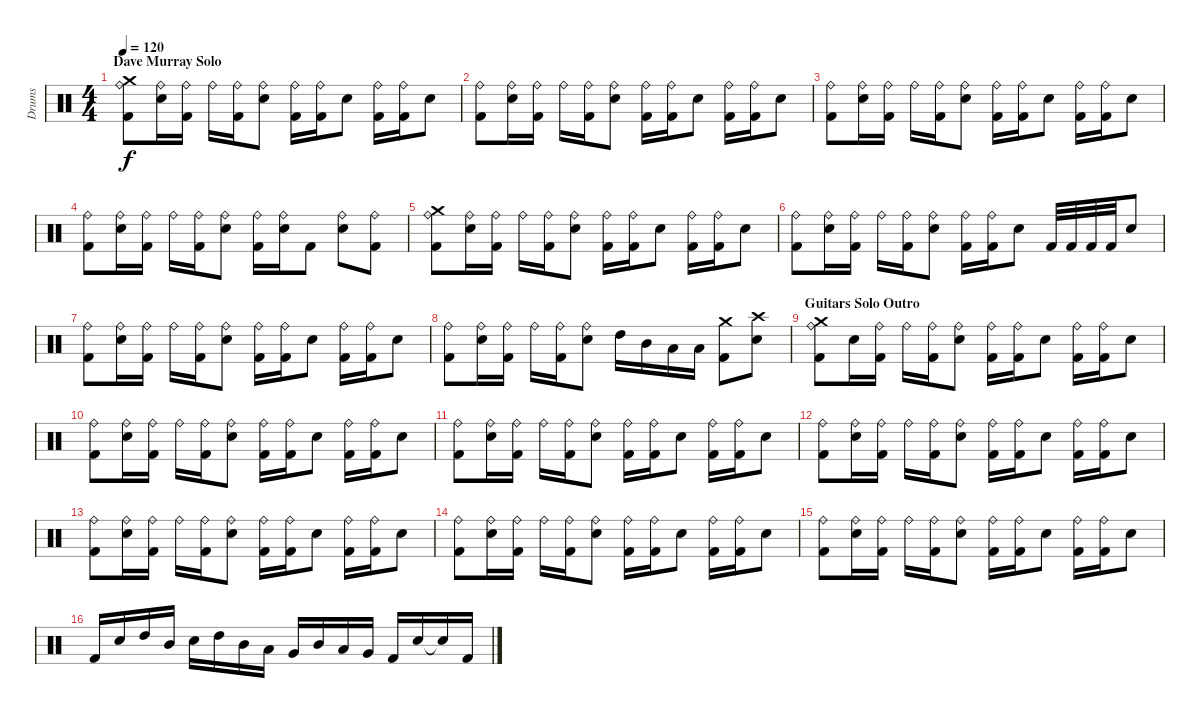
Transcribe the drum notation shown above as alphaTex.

\track ("Drums" "Drums") {instrument percussion}
\staff {score}
\articulation defaults
\ts (4 4)
\section ("" "Dave Murray Solo")
\tempo 120
\clef neutral
\ks c
("Crash medium (hit)" "Kick (hit) 2" "Ride (bell)").8{dy f} ("Snare (hit) 2" "Ride (bell)").16 ("Kick (hit) 2" "Ride (bell)").16 "Ride (bell)".16 ("Kick (hit) 2" "Ride (bell)").16 ("Snare (hit) 2" "Ride (bell)").8 ("Kick (hit) 2" "Ride (bell)").16 ("Kick (hit) 2" "Ride (bell)").16 "Snare (hit) 2".8 ("Kick (hit) 2" "Ride (bell)").16 ("Kick (hit) 2" "Ride (bell)").16 "Snare (hit) 2".8 |
("Kick (hit) 2" "Ride (bell)").8 ("Snare (hit) 2" "Ride (bell)").16 ("Kick (hit) 2" "Ride (bell)").16 "Ride (bell)".16 ("Kick (hit) 2" "Ride (bell)").16 ("Snare (hit) 2" "Ride (bell)").8 ("Kick (hit) 2" "Ride (bell)").16 ("Kick (hit) 2" "Ride (bell)").16 "Snare (hit) 2".8 ("Kick (hit) 2" "Ride (bell)").16 ("Kick (hit) 2" "Ride (bell)").16 "Snare (hit) 2".8 |
("Kick (hit) 2" "Ride (bell)").8 ("Snare (hit) 2" "Ride (bell)").16 ("Kick (hit) 2" "Ride (bell)").16 "Ride (bell)".16 ("Kick (hit) 2" "Ride (bell)").16 ("Snare (hit) 2" "Ride (bell)").8 ("Kick (hit) 2" "Ride (bell)").16 ("Kick (hit) 2" "Ride (bell)").16 "Snare (hit) 2".8 ("Kick (hit) 2" "Ride (bell)").16 ("Kick (hit) 2" "Ride (bell)").16 "Snare (hit) 2".8 |
("Kick (hit) 2" "Ride (bell)").8 ("Snare (hit) 2" "Ride (bell)").16 ("Kick (hit) 2" "Ride (bell)").16 "Ride (bell)".16 ("Kick (hit) 2" "Ride (bell)").16 ("Snare (hit) 2" "Ride (bell)").8 ("Kick (hit) 2" "Ride (bell)").16 ("Snare (hit) 2" "Ride (bell)").16 "Kick (hit) 2".8 ("Snare (hit) 2" "Ride (bell)").8 ("Kick (hit) 2" "Ride (bell)").8 |
("Crash medium (hit)" "Kick (hit) 2" "Ride (bell)").8 ("Snare (hit) 2" "Ride (bell)").16 ("Kick (hit) 2" "Ride (bell)").16 "Ride (bell)".16 ("Kick (hit) 2" "Ride (bell)").16 ("Snare (hit) 2" "Ride (bell)").8 ("Kick (hit) 2" "Ride (bell)").16 ("Kick (hit) 2" "Ride (bell)").16 "Snare (hit) 2".8 ("Kick (hit) 2" "Ride (bell)").16 ("Kick (hit) 2" "Ride (bell)").16 "Snare (hit) 2".8 |
("Kick (hit) 2" "Ride (bell)").8 ("Snare (hit) 2" "Ride (bell)").16 ("Kick (hit) 2" "Ride (bell)").16 "Ride (bell)".16 ("Kick (hit) 2" "Ride (bell)").16 ("Snare (hit) 2" "Ride (bell)").8 ("Kick (hit) 2" "Ride (bell)").16 ("Kick (hit) 2" "Ride (bell)").16 "Snare (hit) 2".8 "Kick (hit) 2".32 "Kick (hit) 2".32 "Kick (hit) 2".32 "Kick (hit) 2".32 "Snare (hit) 2".8 |
("Kick (hit) 2" "Ride (bell)").8 ("Snare (hit) 2" "Ride (bell)").16 ("Kick (hit) 2" "Ride (bell)").16 "Ride (bell)".16 ("Kick (hit) 2" "Ride (bell)").16 ("Snare (hit) 2" "Ride (bell)").8 ("Kick (hit) 2" "Ride (bell)").16 ("Kick (hit) 2" "Ride (bell)").16 "Snare (hit) 2".8 ("Kick (hit) 2" "Ride (bell)").16 ("Kick (hit) 2" "Ride (bell)").16 "Snare (hit) 2".8 |
("Kick (hit) 2" "Ride (bell)").8 ("Snare (hit) 2" "Ride (bell)").16 ("Kick (hit) 2" "Ride (bell)").16 "Ride (bell)".16 ("Kick (hit) 2" "Ride (bell)").16 ("Snare (hit) 2" "Ride (bell)").8 "High Tom (hit)".16 "Mid Tom (hit)".16 "Low Tom (hit)".16 "Low Tom (hit)".16 ("Crash medium (hit)" "Kick (hit) 2").8 ("Crash high (hit)" "Snare (hit) 2").8 |
\section ("" "Guitars Solo Outro")
("Crash medium (hit)" "Kick (hit) 2" "Ride (bell)").8 "Snare (hit) 2".16 ("Kick (hit) 2" "Ride (bell)").16 "Ride (bell)".16 ("Kick (hit) 2" "Ride (bell)").16 ("Snare (hit) 2" "Ride (bell)").8 ("Kick (hit) 2" "Ride (bell)").16 ("Kick (hit) 2" "Ride (bell)").16 "Snare (hit) 2".8 ("Kick (hit) 2" "Ride (bell)").16 ("Kick (hit) 2" "Ride (bell)").16 "Snare (hit) 2".8 |
("Kick (hit) 2" "Ride (bell)").8 ("Snare (hit) 2" "Ride (bell)").16 ("Kick (hit) 2" "Ride (bell)").16 "Ride (bell)".16 ("Kick (hit) 2" "Ride (bell)").16 ("Snare (hit) 2" "Ride (bell)").8 ("Kick (hit) 2" "Ride (bell)").16 ("Kick (hit) 2" "Ride (bell)").16 "Snare (hit) 2".8 ("Kick (hit) 2" "Ride (bell)").16 ("Kick (hit) 2" "Ride (bell)").16 "Snare (hit) 2".8 |
("Kick (hit) 2" "Ride (bell)").8 ("Snare (hit) 2" "Ride (bell)").16 ("Kick (hit) 2" "Ride (bell)").16 "Ride (bell)".16 ("Kick (hit) 2" "Ride (bell)").16 ("Snare (hit) 2" "Ride (bell)").8 ("Kick (hit) 2" "Ride (bell)").16 ("Kick (hit) 2" "Ride (bell)").16 "Snare (hit) 2".8 ("Kick (hit) 2" "Ride (bell)").16 ("Kick (hit) 2" "Ride (bell)").16 "Snare (hit) 2".8 |
("Kick (hit) 2" "Ride (bell)").8 ("Snare (hit) 2" "Ride (bell)").16 ("Kick (hit) 2" "Ride (bell)").16 "Ride (bell)".16 ("Kick (hit) 2" "Ride (bell)").16 ("Snare (hit) 2" "Ride (bell)").8 ("Kick (hit) 2" "Ride (bell)").16 ("Kick (hit) 2" "Ride (bell)").16 "Snare (hit) 2".8 ("Kick (hit) 2" "Ride (bell)").16 ("Kick (hit) 2" "Ride (bell)").16 "Snare (hit) 2".8 |
("Kick (hit) 2" "Ride (bell)").8 ("Snare (hit) 2" "Ride (bell)").16 ("Kick (hit) 2" "Ride (bell)").16 "Ride (bell)".16 ("Kick (hit) 2" "Ride (bell)").16 ("Snare (hit) 2" "Ride (bell)").8 ("Kick (hit) 2" "Ride (bell)").16 ("Kick (hit) 2" "Ride (bell)").16 "Snare (hit) 2".8 ("Kick (hit) 2" "Ride (bell)").16 ("Kick (hit) 2" "Ride (bell)").16 "Snare (hit) 2".8 |
("Kick (hit) 2" "Ride (bell)").8 ("Snare (hit) 2" "Ride (bell)").16 ("Kick (hit) 2" "Ride (bell)").16 "Ride (bell)".16 ("Kick (hit) 2" "Ride (bell)").16 ("Snare (hit) 2" "Ride (bell)").8 ("Kick (hit) 2" "Ride (bell)").16 ("Kick (hit) 2" "Ride (bell)").16 "Snare (hit) 2".8 ("Kick (hit) 2" "Ride (bell)").16 ("Kick (hit) 2" "Ride (bell)").16 "Snare (hit) 2".8 |
("Kick (hit) 2" "Ride (bell)").8 ("Snare (hit) 2" "Ride (bell)").16 ("Kick (hit) 2" "Ride (bell)").16 "Ride (bell)".16 ("Kick (hit) 2" "Ride (bell)").16 ("Snare (hit) 2" "Ride (bell)").8 ("Kick (hit) 2" "Ride (bell)").16 ("Kick (hit) 2" "Ride (bell)").16 "Snare (hit) 2".8 ("Kick (hit) 2" "Ride (bell)").16 ("Kick (hit) 2" "Ride (bell)").16 "Snare (hit) 2".8 |
"Kick (hit) 2".16 "Snare (hit) 2".16 "High Tom (hit)".16 "Mid Tom (hit)".16 "Snare (hit) 2".16 "High Tom (hit)".16 "Mid Tom (hit)".16 "Low Tom (hit)".16 "Very Low Tom (hit)".16 "Mid Tom (hit)".16 "Low Tom (hit)".16 "Very Low Tom (hit)".16 "Kick (hit) 2".16 "Snare (hit) 2".16 "Snare (hit)"{t}.16 "Kick (hit) 2".16
